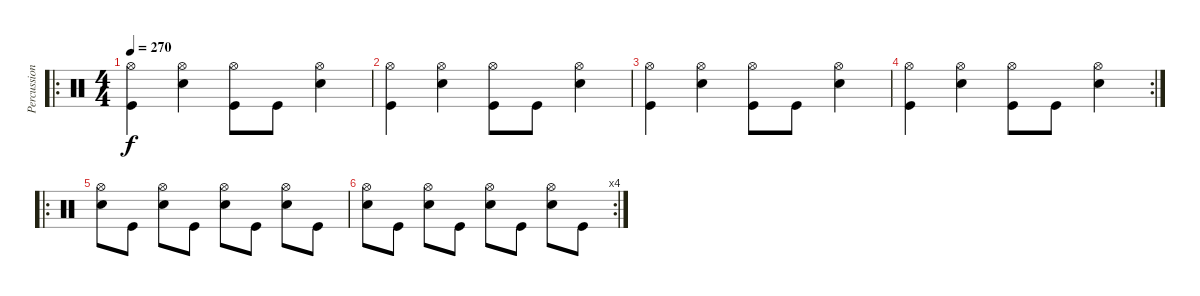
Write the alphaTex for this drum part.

\track ("Percussion" "Percussion") {instrument percussion}
\staff {score}
\articulation defaults
\ro
\ts (4 4)
\tempo 270
\clef neutral
\ks c
("Hi-Hat (open)" "Kick (hit)").4{dy f} ("Hi-Hat (open)" "Snare (hit) 2").4 ("Hi-Hat (open)" "Kick (hit)").8 "Kick (hit)".8 ("Hi-Hat (open)" "Snare (hit) 2").4 |
("Hi-Hat (open)" "Kick (hit)").4 ("Hi-Hat (open)" "Snare (hit) 2").4 ("Hi-Hat (open)" "Kick (hit)").8 "Kick (hit)".8 ("Hi-Hat (open)" "Snare (hit) 2").4 |
("Hi-Hat (open)" "Kick (hit)").4 ("Hi-Hat (open)" "Snare (hit) 2").4 ("Hi-Hat (open)" "Kick (hit)").8 "Kick (hit)".8 ("Hi-Hat (open)" "Snare (hit) 2").4 |
\rc 2
("Hi-Hat (open)" "Kick (hit)").4 ("Hi-Hat (open)" "Snare (hit) 2").4 ("Hi-Hat (open)" "Kick (hit)").8 "Kick (hit)".8 ("Hi-Hat (open)" "Snare (hit) 2").4 |
\ro
("Hi-Hat (open)" "Snare (hit) 2").8 "Kick (hit)".8 ("Hi-Hat (open)" "Snare (hit) 2").8 "Kick (hit)".8 ("Hi-Hat (open)" "Snare (hit) 2").8 "Kick (hit)".8 ("Hi-Hat (open)" "Snare (hit) 2").8 "Kick (hit)".8 |
\rc 4
("Hi-Hat (open)" "Snare (hit) 2").8 "Kick (hit)".8 ("Hi-Hat (open)" "Snare (hit) 2").8 "Kick (hit)".8 ("Hi-Hat (open)" "Snare (hit) 2").8 "Kick (hit)".8 ("Hi-Hat (open)" "Snare (hit) 2").8 "Kick (hit)".8
